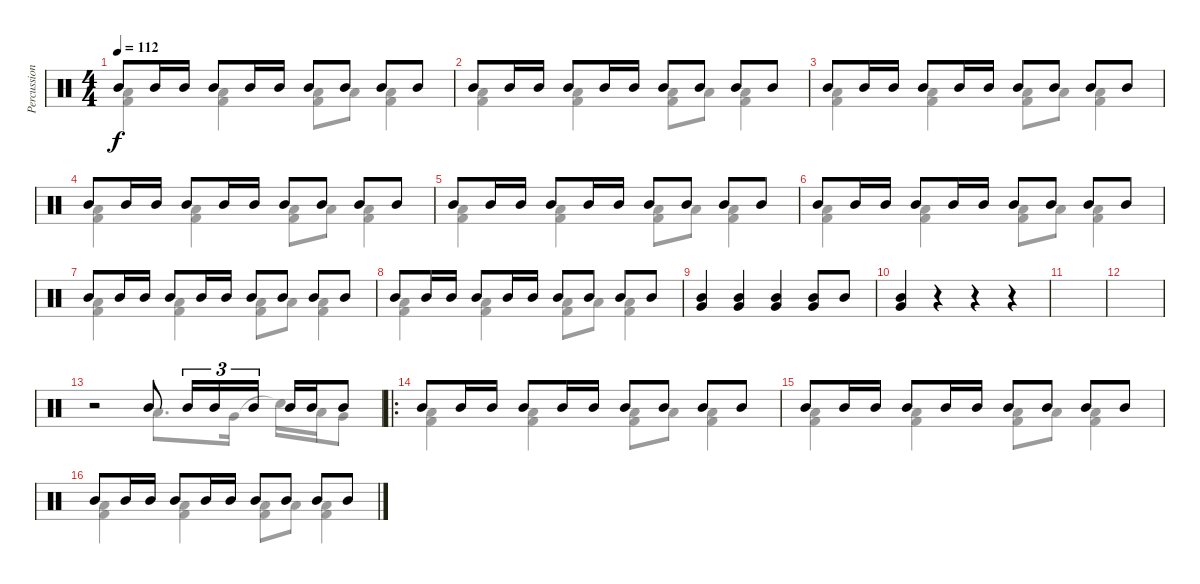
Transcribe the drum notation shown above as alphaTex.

\track ("Percussion" "Percussion") {instrument percussion}
\staff {score}
\articulation defaults
\voice
\ts (4 4)
\tempo 112
\clef neutral
\ks c "Mid Tom (hit)".8{dy f} "Mid Tom (hit)".16 "Mid Tom (hit)".16 "Mid Tom (hit)".8 "Mid Tom (hit)".16 "Mid Tom (hit)".16 "Mid Tom (hit)".8 "Mid Tom (hit)".8 "Mid Tom (hit)".8 "Mid Tom (hit)".8
|
"Mid Tom (hit)".8 "Mid Tom (hit)".16 "Mid Tom (hit)".16 "Mid Tom (hit)".8 "Mid Tom (hit)".16 "Mid Tom (hit)".16 "Mid Tom (hit)".8 "Mid Tom (hit)".8 "Mid Tom (hit)".8 "Mid Tom (hit)".8 |
"Mid Tom (hit)".8 "Mid Tom (hit)".16 "Mid Tom (hit)".16 "Mid Tom (hit)".8 "Mid Tom (hit)".16 "Mid Tom (hit)".16 "Mid Tom (hit)".8 "Mid Tom (hit)".8 "Mid Tom (hit)".8 "Mid Tom (hit)".8 |
"Mid Tom (hit)".8 "Mid Tom (hit)".16 "Mid Tom (hit)".16 "Mid Tom (hit)".8 "Mid Tom (hit)".16 "Mid Tom (hit)".16 "Mid Tom (hit)".8 "Mid Tom (hit)".8 "Mid Tom (hit)".8 "Mid Tom (hit)".8 |
"Mid Tom (hit)".8 "Mid Tom (hit)".16 "Mid Tom (hit)".16 "Mid Tom (hit)".8 "Mid Tom (hit)".16 "Mid Tom (hit)".16 "Mid Tom (hit)".8 "Mid Tom (hit)".8 "Mid Tom (hit)".8 "Mid Tom (hit)".8 |
"Mid Tom (hit)".8 "Mid Tom (hit)".16 "Mid Tom (hit)".16 "Mid Tom (hit)".8 "Mid Tom (hit)".16 "Mid Tom (hit)".16 "Mid Tom (hit)".8 "Mid Tom (hit)".8 "Mid Tom (hit)".8 "Mid Tom (hit)".8 |
"Mid Tom (hit)".8 "Mid Tom (hit)".16 "Mid Tom (hit)".16 "Mid Tom (hit)".8 "Mid Tom (hit)".16 "Mid Tom (hit)".16 "Mid Tom (hit)".8 "Mid Tom (hit)".8 "Mid Tom (hit)".8 "Mid Tom (hit)".8 |
"Mid Tom (hit)".8 "Mid Tom (hit)".16 "Mid Tom (hit)".16 "Mid Tom (hit)".8 "Mid Tom (hit)".16 "Mid Tom (hit)".16 "Mid Tom (hit)".8 "Mid Tom (hit)".8 "Mid Tom (hit)".8 "Mid Tom (hit)".8 |
("Mid Tom (hit)" "Very Low Tom (hit)").4 ("Mid Tom (hit)" "Very Low Tom (hit)").4 ("Mid Tom (hit)" "Very Low Tom (hit)").4 ("Mid Tom (hit)" "Very Low Tom (hit)").8 "Mid Tom (hit)".8 |
("Mid Tom (hit)" "Very Low Tom (hit)").4 r.4 r.4 r.4 |
|
|
r.2 "Mid Tom (hit)".8 "Mid Tom (hit)".16{tu (3 2)} "Mid Tom (hit)".16{tu (3 2)} "Mid Tom (hit)".16{tu (3 2)} "Mid Tom (hit)".16 "Mid Tom (hit)".16 "Mid Tom (hit)".8 |
\ro "Mid Tom (hit)".8 "Mid Tom (hit)".16 "Mid Tom (hit)".16 "Mid Tom (hit)".8 "Mid Tom (hit)".16 "Mid Tom (hit)".16 "Mid Tom (hit)".8 "Mid Tom (hit)".8 "Mid Tom (hit)".8 "Mid Tom (hit)".8
|
"Mid Tom (hit)".8 "Mid Tom (hit)".16 "Mid Tom (hit)".16 "Mid Tom (hit)".8 "Mid Tom (hit)".16 "Mid Tom (hit)".16 "Mid Tom (hit)".8 "Mid Tom (hit)".8 "Mid Tom (hit)".8 "Mid Tom (hit)".8 |
"Mid Tom (hit)".8 "Mid Tom (hit)".16 "Mid Tom (hit)".16 "Mid Tom (hit)".8 "Mid Tom (hit)".16 "Mid Tom (hit)".16 "Mid Tom (hit)".8 "Mid Tom (hit)".8 "Mid Tom (hit)".8 "Mid Tom (hit)".8
\voice
\clef neutral
\ottava regular
\simile none
\ks c
("Low Tom (hit)" "Kick (hit) 2").4{dy f} ("Low Floor Tom (hit)" "Kick (hit) 2").4 ("Low Floor Tom (hit)" "Kick (hit) 2").8 "Low Floor Tom (hit)".8 ("Low Tom (hit)" "Kick (hit) 2").4 |
("Low Tom (hit)" "Kick (hit) 2").4 ("Low Floor Tom (hit)" "Kick (hit) 2").4 ("Low Floor Tom (hit)" "Kick (hit) 2").8 "Low Floor Tom (hit)".8 ("Low Tom (hit)" "Kick (hit) 2").4 |
("Low Tom (hit)" "Kick (hit) 2").4 ("Low Floor Tom (hit)" "Kick (hit) 2").4 ("Low Floor Tom (hit)" "Kick (hit) 2").8 "Low Floor Tom (hit)".8 ("Low Tom (hit)" "Kick (hit) 2").4 |
("Low Tom (hit)" "Kick (hit) 2").4 ("Low Floor Tom (hit)" "Kick (hit) 2").4 ("Low Floor Tom (hit)" "Kick (hit) 2").8 "Low Floor Tom (hit)".8 ("Low Tom (hit)" "Kick (hit) 2").4 |
("Low Tom (hit)" "Kick (hit) 2").4 ("Low Floor Tom (hit)" "Kick (hit) 2").4 ("Low Floor Tom (hit)" "Kick (hit) 2").8 "Low Floor Tom (hit)".8 ("Low Tom (hit)" "Kick (hit) 2").4 |
("Low Tom (hit)" "Kick (hit) 2").4 ("Low Floor Tom (hit)" "Kick (hit) 2").4 ("Low Floor Tom (hit)" "Kick (hit) 2").8 "Low Floor Tom (hit)".8 ("Low Tom (hit)" "Kick (hit) 2").4 |
("Low Tom (hit)" "Kick (hit) 2").4 ("Low Floor Tom (hit)" "Kick (hit) 2").4 ("Low Floor Tom (hit)" "Kick (hit) 2").8 "Low Floor Tom (hit)".8 ("Low Tom (hit)" "Kick (hit) 2").4 |
("Low Tom (hit)" "Kick (hit) 2").4 ("Low Floor Tom (hit)" "Kick (hit) 2").4 ("Low Floor Tom (hit)" "Kick (hit) 2").8 "Low Floor Tom (hit)".8 ("Low Tom (hit)" "Kick (hit) 2").4 |
|
|
|
|
r.2 "Low Tom (hit)".8{d} "Very Low Tom (hit)".16 "Snare (hit)"{t}.16 "Low Tom (hit)".16 "Very Low Tom (hit)".8 |
("Low Tom (hit)" "Kick (hit) 2").4 ("Low Floor Tom (hit)" "Kick (hit) 2").4 ("Low Floor Tom (hit)" "Kick (hit) 2").8 "Low Floor Tom (hit)".8 ("Low Tom (hit)" "Kick (hit) 2").4 |
("Low Tom (hit)" "Kick (hit) 2").4 ("Low Floor Tom (hit)" "Kick (hit) 2").4 ("Low Floor Tom (hit)" "Kick (hit) 2").8 "Low Floor Tom (hit)".8 ("Low Tom (hit)" "Kick (hit) 2").4 |
("Low Tom (hit)" "Kick (hit) 2").4 ("Low Floor Tom (hit)" "Kick (hit) 2").4 ("Low Floor Tom (hit)" "Kick (hit) 2").8 "Low Floor Tom (hit)".8 ("Low Tom (hit)" "Kick (hit) 2").4
